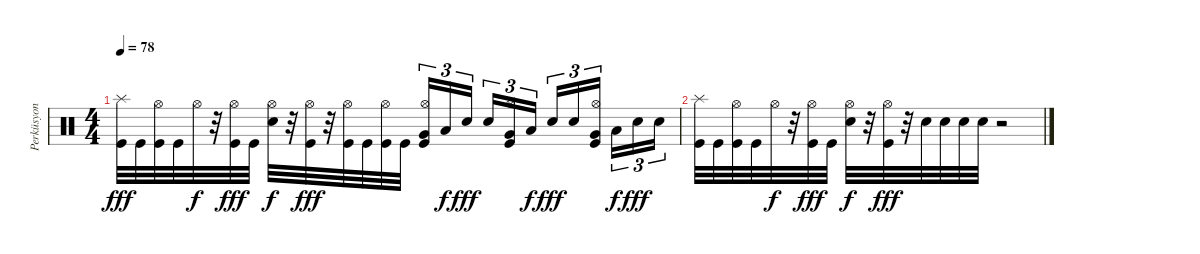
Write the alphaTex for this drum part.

\track ("Perküsyon" "Perküsyon") {instrument percussion}
\staff {score}
\articulation defaults
\ts (4 4)
\tempo 78
\clef neutral
\ks c
("Kick (hit)" "Splash (hit)").32{dy fff} "Kick (hit)".32 ("Hi-Hat (open)" "Kick (hit)").32 "Kick (hit)".32 "Hi-Hat (open)".32{dy f} r.32 ("Hi-Hat (open)" "Kick (hit)").32{dy fff} "Kick (hit)".32 ("Hi-Hat (open)" "Electric Snare (hit)").32{dy f} r.32 ("Hi-Hat (open)" "Kick (hit)").32{dy fff} r.32 ("Hi-Hat (open)" "Kick (hit)").32 "Kick (hit)".32 ("Hi-Hat (open)" "Kick (hit)").32 "Kick (hit)".32 ("Hi-Hat (open)" "Very Low Tom (hit)" "Kick (hit)").16{tu (3 2)} "Low Tom (hit)".16{tu (3 2) dy f} "Electric Snare (hit)".16{tu (3 2) dy fff beam splitsecondary} "Electric Snare (hit)".16{tu (3 2)} ("Hi-Hat (open)" "Very Low Tom (hit)" "Kick (hit)").16{tu (3 2)} "Low Tom (hit)".16{tu (3 2) dy f} "Electric Snare (hit)".16{tu (3 2) dy fff} "Electric Snare (hit)".16{tu (3 2)} ("Hi-Hat (open)" "Very Low Tom (hit)" "Kick (hit)").16{tu (3 2) beam splitsecondary} "Low Tom (hit)".16{tu (3 2) dy f} "Electric Snare (hit)".16{tu (3 2) dy fff} "Electric Snare (hit)".16{tu (3 2)} |
("Kick (hit)" "Splash (hit)").32 "Kick (hit)".32 ("Hi-Hat (open)" "Kick (hit)").32 "Kick (hit)".32 "Hi-Hat (open)".32{dy f} r.32 ("Hi-Hat (open)" "Kick (hit)").32{dy fff} "Kick (hit)".32 ("Hi-Hat (open)" "Electric Snare (hit)").32{dy f} r.32 ("Hi-Hat (open)" "Kick (hit)").32{dy fff} r.32 "Electric Snare (hit)".32 "Electric Snare (hit)".32 "Electric Snare (hit)".32 "Electric Snare (hit)".32 r.2
